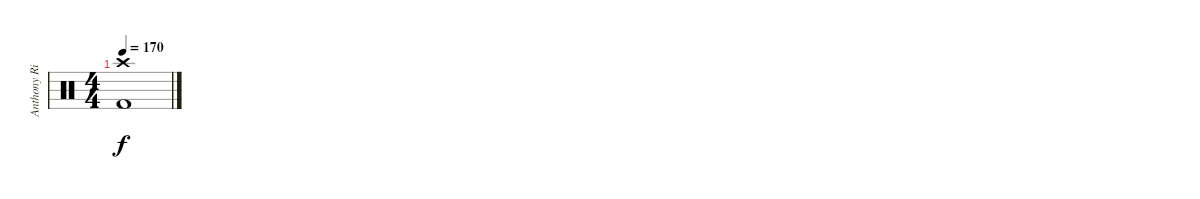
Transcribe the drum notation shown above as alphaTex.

\track ("Anthony Richards" "Anthony Ri") {instrument percussion}
\staff {score}
\articulation defaults
\ts (4 4)
\tempo 170
\clef neutral
\ks c
("Crash high (hit)" "Kick (hit) 2").1{dy f}
